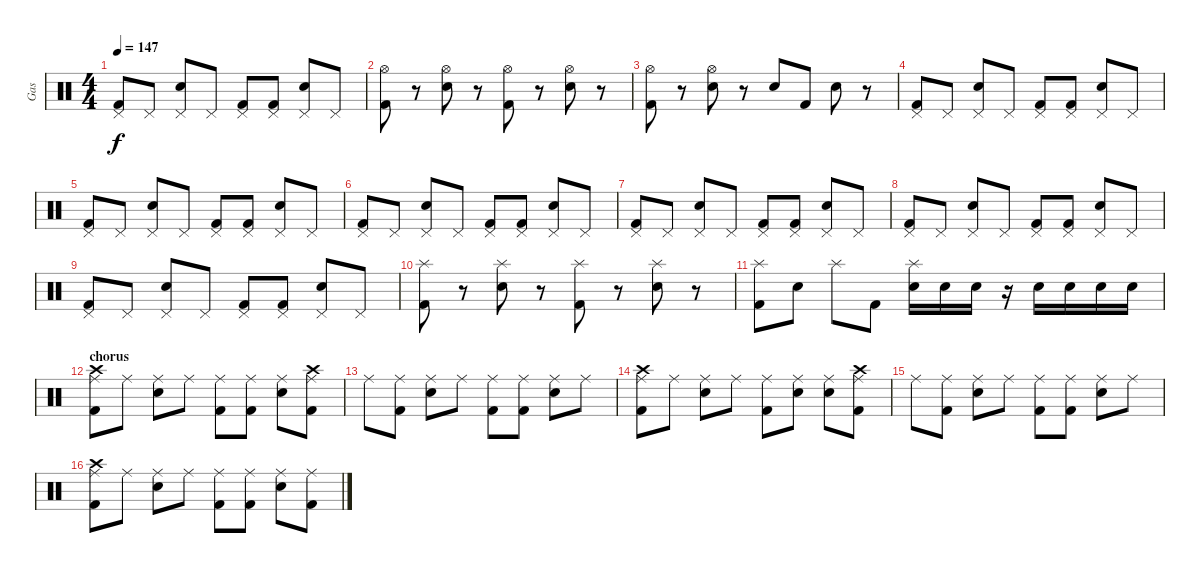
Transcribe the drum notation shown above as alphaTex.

\track ("Gas" "Gas") {instrument percussion}
\staff {score}
\articulation defaults
\ts (4 4)
\tempo 147
\clef neutral
\ks c
("Pedal Hi-Hat (hit)" "Kick (hit) 2").8{dy f} "Pedal Hi-Hat (hit)".8 ("Pedal Hi-Hat (hit)" "Electric Snare (hit)").8 "Pedal Hi-Hat (hit)".8 ("Pedal Hi-Hat (hit)" "Kick (hit) 2").8 ("Pedal Hi-Hat (hit)" "Kick (hit) 2").8 ("Pedal Hi-Hat (hit)" "Electric Snare (hit)").8 "Pedal Hi-Hat (hit)".8 |
("Hi-Hat (open)" "Kick (hit) 2").8 r.8 ("Hi-Hat (open)" "Electric Snare (hit)").8 r.8 ("Hi-Hat (open)" "Kick (hit) 2").8 r.8 ("Hi-Hat (open)" "Electric Snare (hit)").8 r.8 |
("Hi-Hat (open)" "Kick (hit) 2").8 r.8 ("Hi-Hat (open)" "Electric Snare (hit)").8 r.8 "Electric Snare (hit)".8 "Kick (hit) 2".8 "Electric Snare (hit)".8 r.8 |
("Pedal Hi-Hat (hit)" "Kick (hit) 2").8 "Pedal Hi-Hat (hit)".8 ("Pedal Hi-Hat (hit)" "Electric Snare (hit)").8 "Pedal Hi-Hat (hit)".8 ("Pedal Hi-Hat (hit)" "Kick (hit) 2").8 ("Pedal Hi-Hat (hit)" "Kick (hit) 2").8 ("Pedal Hi-Hat (hit)" "Electric Snare (hit)").8 "Pedal Hi-Hat (hit)".8 |
("Pedal Hi-Hat (hit)" "Kick (hit) 2").8 "Pedal Hi-Hat (hit)".8 ("Pedal Hi-Hat (hit)" "Electric Snare (hit)").8 "Pedal Hi-Hat (hit)".8 ("Pedal Hi-Hat (hit)" "Kick (hit) 2").8 ("Pedal Hi-Hat (hit)" "Kick (hit) 2").8 ("Pedal Hi-Hat (hit)" "Electric Snare (hit)").8 "Pedal Hi-Hat (hit)".8 |
("Pedal Hi-Hat (hit)" "Kick (hit) 2").8 "Pedal Hi-Hat (hit)".8 ("Pedal Hi-Hat (hit)" "Electric Snare (hit)").8 "Pedal Hi-Hat (hit)".8 ("Pedal Hi-Hat (hit)" "Kick (hit) 2").8 ("Pedal Hi-Hat (hit)" "Kick (hit) 2").8 ("Pedal Hi-Hat (hit)" "Electric Snare (hit)").8 "Pedal Hi-Hat (hit)".8 |
("Pedal Hi-Hat (hit)" "Kick (hit) 2").8 "Pedal Hi-Hat (hit)".8 ("Pedal Hi-Hat (hit)" "Electric Snare (hit)").8 "Pedal Hi-Hat (hit)".8 ("Pedal Hi-Hat (hit)" "Kick (hit) 2").8 ("Pedal Hi-Hat (hit)" "Kick (hit) 2").8 ("Pedal Hi-Hat (hit)" "Electric Snare (hit)").8 "Pedal Hi-Hat (hit)".8 |
("Pedal Hi-Hat (hit)" "Kick (hit) 2").8 "Pedal Hi-Hat (hit)".8 ("Pedal Hi-Hat (hit)" "Electric Snare (hit)").8 "Pedal Hi-Hat (hit)".8 ("Pedal Hi-Hat (hit)" "Kick (hit) 2").8 ("Pedal Hi-Hat (hit)" "Kick (hit) 2").8 ("Pedal Hi-Hat (hit)" "Electric Snare (hit)").8 "Pedal Hi-Hat (hit)".8 |
("Pedal Hi-Hat (hit)" "Kick (hit) 2").8 "Pedal Hi-Hat (hit)".8 ("Pedal Hi-Hat (hit)" "Electric Snare (hit)").8 "Pedal Hi-Hat (hit)".8 ("Pedal Hi-Hat (hit)" "Kick (hit) 2").8 ("Pedal Hi-Hat (hit)" "Kick (hit) 2").8 ("Pedal Hi-Hat (hit)" "Electric Snare (hit)").8 "Pedal Hi-Hat (hit)".8 |
("Splash (hit)" "Kick (hit) 2").8 r.8 ("Splash (hit)" "Electric Snare (hit)").8 r.8 ("Splash (hit)" "Kick (hit) 2").8 r.8 ("Splash (hit)" "Electric Snare (hit)").8 r.8 |
("Splash (hit)" "Kick (hit) 2").8 "Electric Snare (hit)".8 "Splash (hit)".8 "Kick (hit) 2".8 ("Splash (hit)" "Electric Snare (hit)").16 "Electric Snare (hit)".16 "Electric Snare (hit)".16 r.16 "Electric Snare (hit)".16 "Electric Snare (hit)".16 "Electric Snare (hit)".16 "Electric Snare (hit)".16 |
\section ("" "chorus")
("Ride (middle)" "Crash high (hit)" "Kick (hit) 2").8 "Ride (middle)".8 ("Ride (middle)" "Electric Snare (hit)").8 "Ride (middle)".8 ("Ride (middle)" "Kick (hit) 2").8 ("Ride (middle)" "Kick (hit) 2").8 ("Ride (middle)" "Electric Snare (hit)").8 ("Ride (middle)" "Crash high (hit)" "Kick (hit) 2").8 |
"Ride (middle)".8 ("Ride (middle)" "Kick (hit) 2").8 ("Ride (middle)" "Electric Snare (hit)").8 "Ride (middle)".8 ("Ride (middle)" "Kick (hit) 2").8 ("Ride (middle)" "Kick (hit) 2").8 ("Ride (middle)" "Electric Snare (hit)").8 "Ride (middle)".8 |
("Ride (middle)" "Crash high (hit)" "Kick (hit) 2").8 "Ride (middle)".8 ("Ride (middle)" "Electric Snare (hit)").8 "Ride (middle)".8 ("Ride (middle)" "Kick (hit) 2").8 ("Ride (middle)" "Electric Snare (hit)").8 ("Ride (middle)" "Electric Snare (hit)").8 ("Ride (middle)" "Crash high (hit)" "Kick (hit) 2").8 |
"Ride (middle)".8 ("Ride (middle)" "Kick (hit) 2").8 ("Ride (middle)" "Electric Snare (hit)").8 "Ride (middle)".8 ("Ride (middle)" "Kick (hit) 2").8 ("Ride (middle)" "Kick (hit) 2").8 ("Ride (middle)" "Electric Snare (hit)").8 "Ride (middle)".8 |
("Ride (middle)" "Crash high (hit)" "Kick (hit) 2").8 "Ride (middle)".8 ("Ride (middle)" "Electric Snare (hit)").8 "Ride (middle)".8 ("Ride (middle)" "Kick (hit) 2").8 ("Ride (middle)" "Kick (hit) 2").8 ("Ride (middle)" "Electric Snare (hit)").8 ("Ride (middle)" "Kick (hit) 2").8
